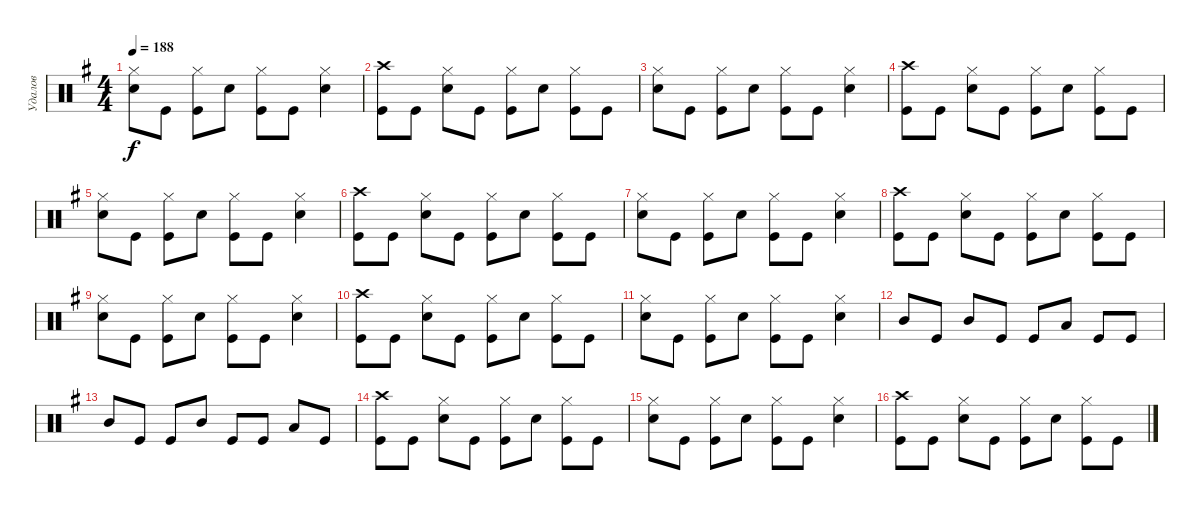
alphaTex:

\track ("Удалов" "Удалов") {instrument percussion}
\staff {score}
\articulation defaults
\ts (4 4)
\tempo 188
\clef neutral
\ks g
("Hi-Hat (closed)" "Electric Snare (hit)").8{dy f} "Kick (hit)".8 ("Hi-Hat (closed)" "Kick (hit)").8 "Electric Snare (hit)".8 ("Hi-Hat (closed)" "Kick (hit)").8 "Kick (hit)".8 ("Hi-Hat (closed)" "Electric Snare (hit)").4 |
("Crash high (hit)" "Kick (hit)").8 "Kick (hit)".8 ("Hi-Hat (closed)" "Electric Snare (hit)").8 "Kick (hit)".8 ("Hi-Hat (closed)" "Kick (hit)").8 "Electric Snare (hit)".8 ("Kick (hit)" "Hi-Hat (closed)").8 "Kick (hit)".8 |
("Hi-Hat (closed)" "Electric Snare (hit)").8 "Kick (hit)".8 ("Hi-Hat (closed)" "Kick (hit)").8 "Electric Snare (hit)".8 ("Hi-Hat (closed)" "Kick (hit)").8 "Kick (hit)".8 ("Hi-Hat (closed)" "Electric Snare (hit)").4 |
("Crash high (hit)" "Kick (hit)").8 "Kick (hit)".8 ("Hi-Hat (closed)" "Electric Snare (hit)").8 "Kick (hit)".8 ("Hi-Hat (closed)" "Kick (hit)").8 "Electric Snare (hit)".8 ("Kick (hit)" "Hi-Hat (closed)").8 "Kick (hit)".8 |
("Hi-Hat (closed)" "Electric Snare (hit)").8 "Kick (hit)".8 ("Hi-Hat (closed)" "Kick (hit)").8 "Electric Snare (hit)".8 ("Hi-Hat (closed)" "Kick (hit)").8 "Kick (hit)".8 ("Hi-Hat (closed)" "Electric Snare (hit)").4 |
("Crash high (hit)" "Kick (hit)").8 "Kick (hit)".8 ("Hi-Hat (closed)" "Electric Snare (hit)").8 "Kick (hit)".8 ("Hi-Hat (closed)" "Kick (hit)").8 "Electric Snare (hit)".8 ("Kick (hit)" "Hi-Hat (closed)").8 "Kick (hit)".8 |
("Hi-Hat (closed)" "Electric Snare (hit)").8 "Kick (hit)".8 ("Hi-Hat (closed)" "Kick (hit)").8 "Electric Snare (hit)".8 ("Hi-Hat (closed)" "Kick (hit)").8 "Kick (hit)".8 ("Hi-Hat (closed)" "Electric Snare (hit)").4 |
("Crash high (hit)" "Kick (hit)").8 "Kick (hit)".8 ("Hi-Hat (closed)" "Electric Snare (hit)").8 "Kick (hit)".8 ("Hi-Hat (closed)" "Kick (hit)").8 "Electric Snare (hit)".8 ("Kick (hit)" "Hi-Hat (closed)").8 "Kick (hit)".8 |
("Hi-Hat (closed)" "Electric Snare (hit)").8 "Kick (hit)".8 ("Hi-Hat (closed)" "Kick (hit)").8 "Electric Snare (hit)".8 ("Hi-Hat (closed)" "Kick (hit)").8 "Kick (hit)".8 ("Hi-Hat (closed)" "Electric Snare (hit)").4 |
("Crash high (hit)" "Kick (hit)").8 "Kick (hit)".8 ("Hi-Hat (closed)" "Electric Snare (hit)").8 "Kick (hit)".8 ("Hi-Hat (closed)" "Kick (hit)").8 "Electric Snare (hit)".8 ("Kick (hit)" "Hi-Hat (closed)").8 "Kick (hit)".8 |
("Hi-Hat (closed)" "Electric Snare (hit)").8 "Kick (hit)".8 ("Hi-Hat (closed)" "Kick (hit)").8 "Electric Snare (hit)".8 ("Hi-Hat (closed)" "Kick (hit)").8 "Kick (hit)".8 ("Hi-Hat (closed)" "Electric Snare (hit)").4 |
"Mid Tom (hit)".8 "Kick (hit)".8 "Mid Tom (hit)".8 "Kick (hit)".8 "Kick (hit)".8 "Low Tom (hit)".8 "Kick (hit)".8 "Kick (hit)".8 |
"Mid Tom (hit)".8 "Kick (hit)".8 "Kick (hit)".8 "Mid Tom (hit)".8 "Kick (hit)".8 "Kick (hit)".8 "Low Tom (hit)".8 "Kick (hit)".8 |
("Crash high (hit)" "Kick (hit)").8 "Kick (hit)".8 ("Hi-Hat (closed)" "Electric Snare (hit)").8 "Kick (hit)".8 ("Hi-Hat (closed)" "Kick (hit)").8 "Electric Snare (hit)".8 ("Kick (hit)" "Hi-Hat (closed)").8 "Kick (hit)".8 |
("Hi-Hat (closed)" "Electric Snare (hit)").8 "Kick (hit)".8 ("Hi-Hat (closed)" "Kick (hit)").8 "Electric Snare (hit)".8 ("Hi-Hat (closed)" "Kick (hit)").8 "Kick (hit)".8 ("Hi-Hat (closed)" "Electric Snare (hit)").4 |
("Crash high (hit)" "Kick (hit)").8 "Kick (hit)".8 ("Hi-Hat (closed)" "Electric Snare (hit)").8 "Kick (hit)".8 ("Hi-Hat (closed)" "Kick (hit)").8 "Electric Snare (hit)".8 ("Kick (hit)" "Hi-Hat (closed)").8 "Kick (hit)".8
